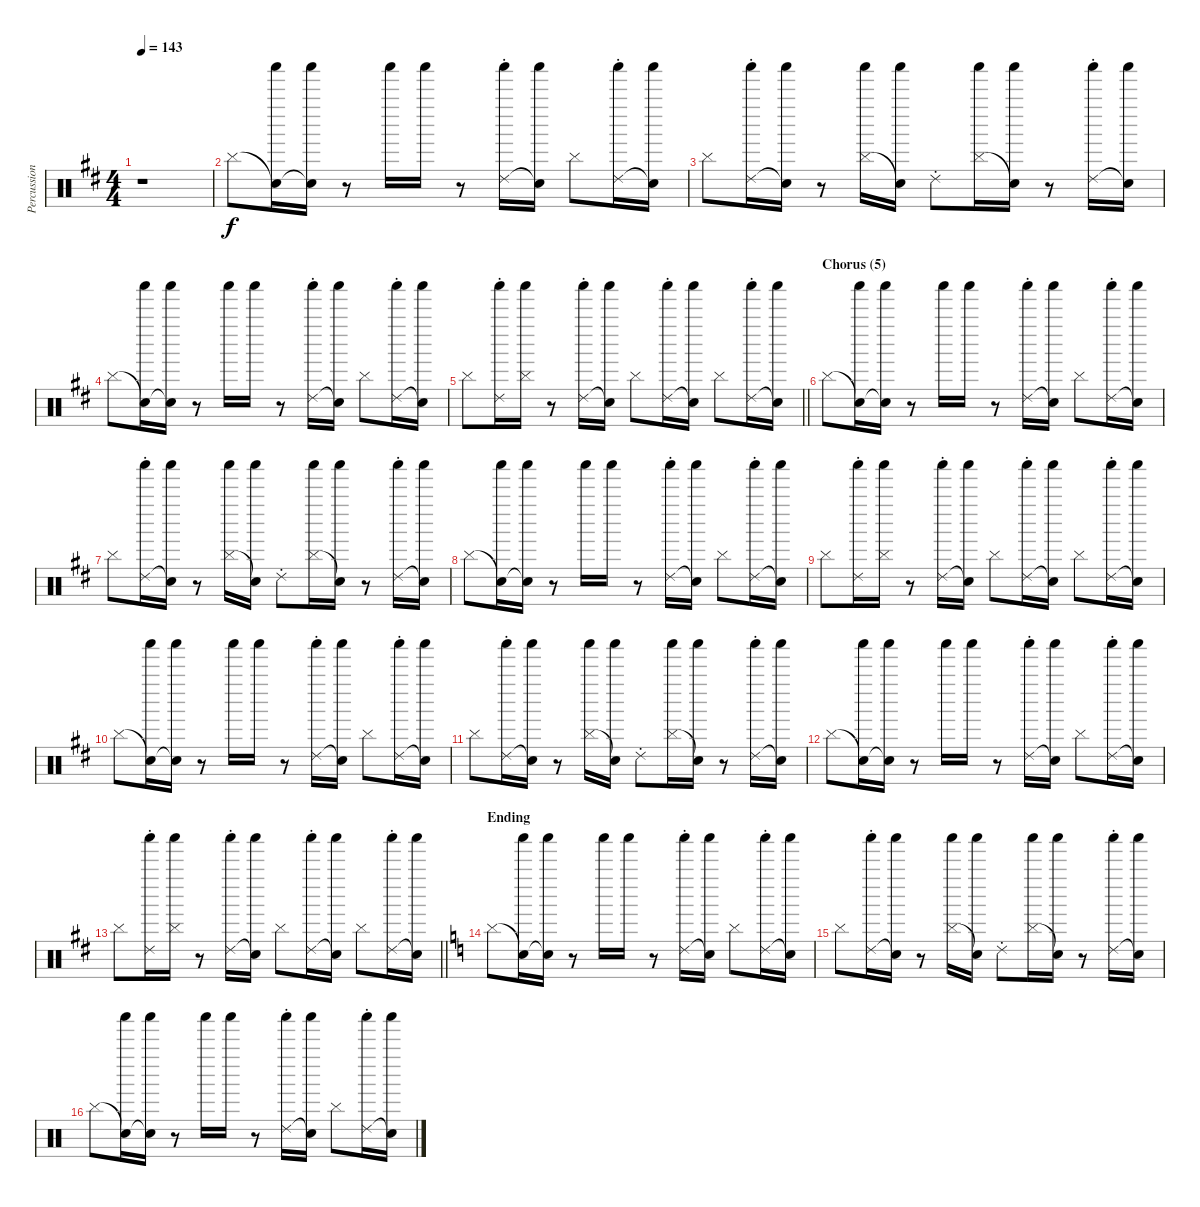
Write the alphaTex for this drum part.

\track ("Percussion" "Percussion") {instrument percussion}
\staff {score}
\articulation defaults
\ts (4 4)
\tempo 143
\clef neutral
\ks d
r.1{dy f} |
"Cymbal (hit)".8 ("Snare (hit)"{t} "Shaker (hit)").16 ("Snare (hit)"{t} "Shaker (hit)").16 r.8 "Shaker (hit)".16 "Shaker (hit)".16 r.8 ("Ride (choke) 2" "Shaker (hit)").16 ("Snare (hit)"{t} "Shaker (hit)").16 "Cymbal (hit)".8 ("Ride (choke) 2" "Shaker (hit)").16 ("Snare (hit)"{t} "Shaker (hit)").16 |
"Cymbal (hit)".8 ("Ride (choke) 2" "Shaker (hit)").16 ("Snare (hit)"{t} "Shaker (hit)").16 r.8 ("Cymbal (hit)" "Shaker (hit)").16 ("Snare (hit)"{t} "Shaker (hit)").16 "Ride (choke) 2".8 ("Cymbal (hit)" "Shaker (hit)").16 ("Snare (hit)"{t} "Shaker (hit)").16 r.8 ("Ride (choke) 2" "Shaker (hit)").16 ("Snare (hit)"{t} "Shaker (hit)").16 |
"Cymbal (hit)".8 ("Snare (hit)"{t} "Shaker (hit)").16 ("Snare (hit)"{t} "Shaker (hit)").16 r.8 "Shaker (hit)".16 "Shaker (hit)".16 r.8 ("Ride (choke) 2" "Shaker (hit)").16 ("Snare (hit)"{t} "Shaker (hit)").16 "Cymbal (hit)".8 ("Ride (choke) 2" "Shaker (hit)").16 ("Snare (hit)"{t} "Shaker (hit)").16 |
\barLineRight lightlight "Cymbal (hit)".8
("Ride (choke) 2" "Shaker (hit)").16 ("Cymbal (hit)" "Shaker (hit)").16 r.8 ("Ride (choke) 2" "Shaker (hit)").16 ("Snare (hit)"{t} "Shaker (hit)").16 "Cymbal (hit)".8 ("Ride (choke) 2" "Shaker (hit)").16 ("Snare (hit)"{t} "Shaker (hit)").16 "Cymbal (hit)".8 ("Ride (choke) 2" "Shaker (hit)").16 ("Snare (hit)"{t} "Shaker (hit)").16 |
\section ("" "Chorus (5)")
"Cymbal (hit)".8 ("Snare (hit)"{t} "Shaker (hit)").16 ("Snare (hit)"{t} "Shaker (hit)").16 r.8 "Shaker (hit)".16 "Shaker (hit)".16 r.8 ("Ride (choke) 2" "Shaker (hit)").16 ("Snare (hit)"{t} "Shaker (hit)").16 "Cymbal (hit)".8 ("Ride (choke) 2" "Shaker (hit)").16 ("Snare (hit)"{t} "Shaker (hit)").16 |
"Cymbal (hit)".8 ("Ride (choke) 2" "Shaker (hit)").16 ("Snare (hit)"{t} "Shaker (hit)").16 r.8 ("Cymbal (hit)" "Shaker (hit)").16 ("Snare (hit)"{t} "Shaker (hit)").16 "Ride (choke) 2".8 ("Cymbal (hit)" "Shaker (hit)").16 ("Snare (hit)"{t} "Shaker (hit)").16 r.8 ("Ride (choke) 2" "Shaker (hit)").16 ("Snare (hit)"{t} "Shaker (hit)").16 |
"Cymbal (hit)".8 ("Snare (hit)"{t} "Shaker (hit)").16 ("Snare (hit)"{t} "Shaker (hit)").16 r.8 "Shaker (hit)".16 "Shaker (hit)".16 r.8 ("Ride (choke) 2" "Shaker (hit)").16 ("Snare (hit)"{t} "Shaker (hit)").16 "Cymbal (hit)".8 ("Ride (choke) 2" "Shaker (hit)").16 ("Snare (hit)"{t} "Shaker (hit)").16 |
"Cymbal (hit)".8 ("Ride (choke) 2" "Shaker (hit)").16 ("Cymbal (hit)" "Shaker (hit)").16 r.8 ("Ride (choke) 2" "Shaker (hit)").16 ("Snare (hit)"{t} "Shaker (hit)").16 "Cymbal (hit)".8 ("Ride (choke) 2" "Shaker (hit)").16 ("Snare (hit)"{t} "Shaker (hit)").16 "Cymbal (hit)".8 ("Ride (choke) 2" "Shaker (hit)").16 ("Snare (hit)"{t} "Shaker (hit)").16 |
"Cymbal (hit)".8 ("Snare (hit)"{t} "Shaker (hit)").16 ("Snare (hit)"{t} "Shaker (hit)").16 r.8 "Shaker (hit)".16 "Shaker (hit)".16 r.8 ("Ride (choke) 2" "Shaker (hit)").16 ("Snare (hit)"{t} "Shaker (hit)").16 "Cymbal (hit)".8 ("Ride (choke) 2" "Shaker (hit)").16 ("Snare (hit)"{t} "Shaker (hit)").16 |
"Cymbal (hit)".8 ("Ride (choke) 2" "Shaker (hit)").16 ("Snare (hit)"{t} "Shaker (hit)").16 r.8 ("Cymbal (hit)" "Shaker (hit)").16 ("Snare (hit)"{t} "Shaker (hit)").16 "Ride (choke) 2".8 ("Cymbal (hit)" "Shaker (hit)").16 ("Snare (hit)"{t} "Shaker (hit)").16 r.8 ("Ride (choke) 2" "Shaker (hit)").16 ("Snare (hit)"{t} "Shaker (hit)").16 |
"Cymbal (hit)".8 ("Snare (hit)"{t} "Shaker (hit)").16 ("Snare (hit)"{t} "Shaker (hit)").16 r.8 "Shaker (hit)".16 "Shaker (hit)".16 r.8 ("Ride (choke) 2" "Shaker (hit)").16 ("Snare (hit)"{t} "Shaker (hit)").16 "Cymbal (hit)".8 ("Ride (choke) 2" "Shaker (hit)").16 ("Snare (hit)"{t} "Shaker (hit)").16 |
\barLineRight lightlight "Cymbal (hit)".8
("Ride (choke) 2" "Shaker (hit)").16 ("Cymbal (hit)" "Shaker (hit)").16 r.8 ("Ride (choke) 2" "Shaker (hit)").16 ("Snare (hit)"{t} "Shaker (hit)").16 "Cymbal (hit)".8 ("Ride (choke) 2" "Shaker (hit)").16 ("Snare (hit)"{t} "Shaker (hit)").16 "Cymbal (hit)".8 ("Ride (choke) 2" "Shaker (hit)").16 ("Snare (hit)"{t} "Shaker (hit)").16 |
\section ("" "Ending")
\ks aminor "Cymbal (hit)".8
("Snare (hit)"{t} "Shaker (hit)").16 ("Snare (hit)"{t} "Shaker (hit)").16 r.8 "Shaker (hit)".16 "Shaker (hit)".16 r.8 ("Ride (choke) 2" "Shaker (hit)").16 ("Snare (hit)"{t} "Shaker (hit)").16 "Cymbal (hit)".8 ("Ride (choke) 2" "Shaker (hit)").16 ("Snare (hit)"{t} "Shaker (hit)").16 |
"Cymbal (hit)".8 ("Ride (choke) 2" "Shaker (hit)").16 ("Snare (hit)"{t} "Shaker (hit)").16 r.8 ("Cymbal (hit)" "Shaker (hit)").16 ("Snare (hit)"{t} "Shaker (hit)").16 "Ride (choke) 2".8 ("Cymbal (hit)" "Shaker (hit)").16 ("Snare (hit)"{t} "Shaker (hit)").16 r.8 ("Ride (choke) 2" "Shaker (hit)").16 ("Snare (hit)"{t} "Shaker (hit)").16 |
"Cymbal (hit)".8 ("Snare (hit)"{t} "Shaker (hit)").16 ("Snare (hit)"{t} "Shaker (hit)").16 r.8 "Shaker (hit)".16 "Shaker (hit)".16 r.8 ("Ride (choke) 2" "Shaker (hit)").16 ("Snare (hit)"{t} "Shaker (hit)").16 "Cymbal (hit)".8 ("Ride (choke) 2" "Shaker (hit)").16 ("Snare (hit)"{t} "Shaker (hit)").16
